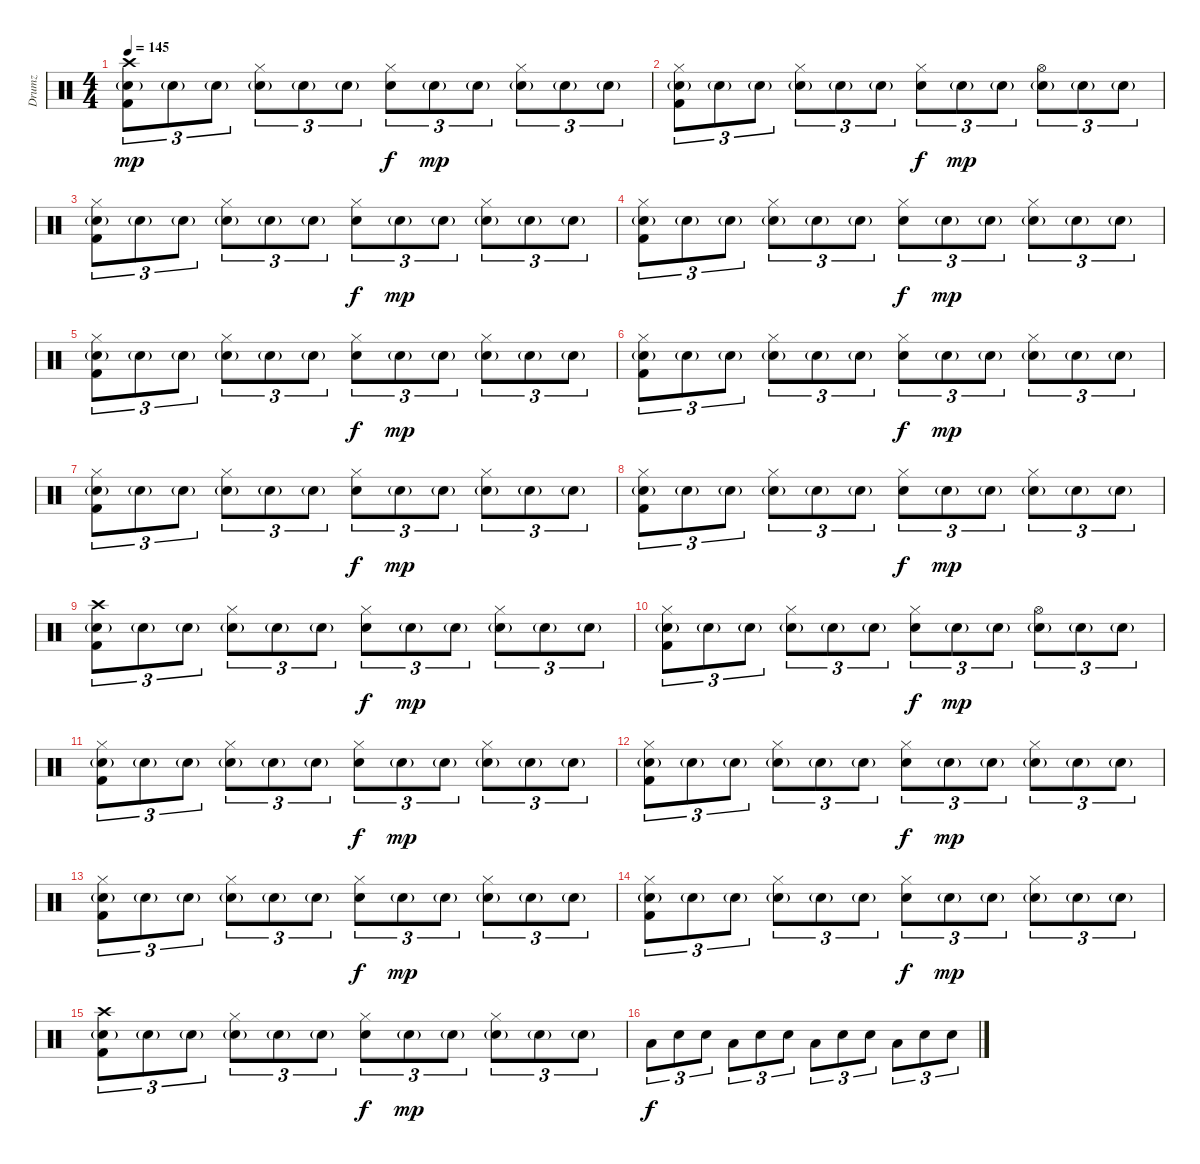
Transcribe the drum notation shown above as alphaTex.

\track ("Drumz" "Drumz") {instrument percussion}
\staff {score}
\articulation defaults
\ts (4 4)
\tempo 145
\clef neutral
\ks c
("Crash high (hit)" "Electric Snare (hit)"{g} "Kick (hit) 2").8{tu (3 2) dy mp} "Electric Snare (hit)"{g}.8{tu (3 2)} "Electric Snare (hit)"{g}.8{tu (3 2)} ("Hi-Hat (closed)" "Electric Snare (hit)"{g}).8{tu (3 2)} "Electric Snare (hit)"{g}.8{tu (3 2)} "Electric Snare (hit)"{g}.8{tu (3 2)} ("Hi-Hat (closed)" "Electric Snare (hit)").8{tu (3 2) dy f} "Electric Snare (hit)"{g}.8{tu (3 2) dy mp} "Electric Snare (hit)"{g}.8{tu (3 2)} ("Hi-Hat (closed)" "Electric Snare (hit)"{g}).8{tu (3 2)} "Electric Snare (hit)"{g}.8{tu (3 2)} "Electric Snare (hit)"{g}.8{tu (3 2)} |
("Hi-Hat (closed)" "Electric Snare (hit)"{g} "Kick (hit) 2").8{tu (3 2)} "Electric Snare (hit)"{g}.8{tu (3 2)} "Electric Snare (hit)"{g}.8{tu (3 2)} ("Hi-Hat (closed)" "Electric Snare (hit)"{g}).8{tu (3 2)} "Electric Snare (hit)"{g}.8{tu (3 2)} "Electric Snare (hit)"{g}.8{tu (3 2)} ("Hi-Hat (closed)" "Electric Snare (hit)").8{tu (3 2) dy f} "Electric Snare (hit)"{g}.8{tu (3 2) dy mp} "Electric Snare (hit)"{g}.8{tu (3 2)} ("Hi-Hat (open)" "Electric Snare (hit)"{g}).8{tu (3 2)} "Electric Snare (hit)"{g}.8{tu (3 2)} "Electric Snare (hit)"{g}.8{tu (3 2)} |
("Hi-Hat (closed)" "Electric Snare (hit)"{g} "Kick (hit) 2").8{tu (3 2)} "Electric Snare (hit)"{g}.8{tu (3 2)} "Electric Snare (hit)"{g}.8{tu (3 2)} ("Hi-Hat (closed)" "Electric Snare (hit)"{g}).8{tu (3 2)} "Electric Snare (hit)"{g}.8{tu (3 2)} "Electric Snare (hit)"{g}.8{tu (3 2)} ("Hi-Hat (closed)" "Electric Snare (hit)").8{tu (3 2) dy f} "Electric Snare (hit)"{g}.8{tu (3 2) dy mp} "Electric Snare (hit)"{g}.8{tu (3 2)} ("Hi-Hat (closed)" "Electric Snare (hit)"{g}).8{tu (3 2)} "Electric Snare (hit)"{g}.8{tu (3 2)} "Electric Snare (hit)"{g}.8{tu (3 2)} |
("Hi-Hat (closed)" "Electric Snare (hit)"{g} "Kick (hit) 2").8{tu (3 2)} "Electric Snare (hit)"{g}.8{tu (3 2)} "Electric Snare (hit)"{g}.8{tu (3 2)} ("Hi-Hat (closed)" "Electric Snare (hit)"{g}).8{tu (3 2)} "Electric Snare (hit)"{g}.8{tu (3 2)} "Electric Snare (hit)"{g}.8{tu (3 2)} ("Hi-Hat (closed)" "Electric Snare (hit)").8{tu (3 2) dy f} "Electric Snare (hit)"{g}.8{tu (3 2) dy mp} "Electric Snare (hit)"{g}.8{tu (3 2)} ("Hi-Hat (closed)" "Electric Snare (hit)"{g}).8{tu (3 2)} "Electric Snare (hit)"{g}.8{tu (3 2)} "Electric Snare (hit)"{g}.8{tu (3 2)} |
("Hi-Hat (closed)" "Electric Snare (hit)"{g} "Kick (hit) 2").8{tu (3 2)} "Electric Snare (hit)"{g}.8{tu (3 2)} "Electric Snare (hit)"{g}.8{tu (3 2)} ("Hi-Hat (closed)" "Electric Snare (hit)"{g}).8{tu (3 2)} "Electric Snare (hit)"{g}.8{tu (3 2)} "Electric Snare (hit)"{g}.8{tu (3 2)} ("Hi-Hat (closed)" "Electric Snare (hit)").8{tu (3 2) dy f} "Electric Snare (hit)"{g}.8{tu (3 2) dy mp} "Electric Snare (hit)"{g}.8{tu (3 2)} ("Hi-Hat (closed)" "Electric Snare (hit)"{g}).8{tu (3 2)} "Electric Snare (hit)"{g}.8{tu (3 2)} "Electric Snare (hit)"{g}.8{tu (3 2)} |
("Hi-Hat (closed)" "Electric Snare (hit)"{g} "Kick (hit) 2").8{tu (3 2)} "Electric Snare (hit)"{g}.8{tu (3 2)} "Electric Snare (hit)"{g}.8{tu (3 2)} ("Hi-Hat (closed)" "Electric Snare (hit)"{g}).8{tu (3 2)} "Electric Snare (hit)"{g}.8{tu (3 2)} "Electric Snare (hit)"{g}.8{tu (3 2)} ("Hi-Hat (closed)" "Electric Snare (hit)").8{tu (3 2) dy f} "Electric Snare (hit)"{g}.8{tu (3 2) dy mp} "Electric Snare (hit)"{g}.8{tu (3 2)} ("Hi-Hat (closed)" "Electric Snare (hit)"{g}).8{tu (3 2)} "Electric Snare (hit)"{g}.8{tu (3 2)} "Electric Snare (hit)"{g}.8{tu (3 2)} |
("Hi-Hat (closed)" "Electric Snare (hit)"{g} "Kick (hit) 2").8{tu (3 2)} "Electric Snare (hit)"{g}.8{tu (3 2)} "Electric Snare (hit)"{g}.8{tu (3 2)} ("Hi-Hat (closed)" "Electric Snare (hit)"{g}).8{tu (3 2)} "Electric Snare (hit)"{g}.8{tu (3 2)} "Electric Snare (hit)"{g}.8{tu (3 2)} ("Hi-Hat (closed)" "Electric Snare (hit)").8{tu (3 2) dy f} "Electric Snare (hit)"{g}.8{tu (3 2) dy mp} "Electric Snare (hit)"{g}.8{tu (3 2)} ("Hi-Hat (closed)" "Electric Snare (hit)"{g}).8{tu (3 2)} "Electric Snare (hit)"{g}.8{tu (3 2)} "Electric Snare (hit)"{g}.8{tu (3 2)} |
("Hi-Hat (closed)" "Electric Snare (hit)"{g} "Kick (hit) 2").8{tu (3 2)} "Electric Snare (hit)"{g}.8{tu (3 2)} "Electric Snare (hit)"{g}.8{tu (3 2)} ("Hi-Hat (closed)" "Electric Snare (hit)"{g}).8{tu (3 2)} "Electric Snare (hit)"{g}.8{tu (3 2)} "Electric Snare (hit)"{g}.8{tu (3 2)} ("Hi-Hat (closed)" "Electric Snare (hit)").8{tu (3 2) dy f} "Electric Snare (hit)"{g}.8{tu (3 2) dy mp} "Electric Snare (hit)"{g}.8{tu (3 2)} ("Hi-Hat (closed)" "Electric Snare (hit)"{g}).8{tu (3 2)} "Electric Snare (hit)"{g}.8{tu (3 2)} "Electric Snare (hit)"{g}.8{tu (3 2)} |
("Crash high (hit)" "Electric Snare (hit)"{g} "Kick (hit) 2").8{tu (3 2)} "Electric Snare (hit)"{g}.8{tu (3 2)} "Electric Snare (hit)"{g}.8{tu (3 2)} ("Hi-Hat (closed)" "Electric Snare (hit)"{g}).8{tu (3 2)} "Electric Snare (hit)"{g}.8{tu (3 2)} "Electric Snare (hit)"{g}.8{tu (3 2)} ("Hi-Hat (closed)" "Electric Snare (hit)").8{tu (3 2) dy f} "Electric Snare (hit)"{g}.8{tu (3 2) dy mp} "Electric Snare (hit)"{g}.8{tu (3 2)} ("Hi-Hat (closed)" "Electric Snare (hit)"{g}).8{tu (3 2)} "Electric Snare (hit)"{g}.8{tu (3 2)} "Electric Snare (hit)"{g}.8{tu (3 2)} |
("Hi-Hat (closed)" "Electric Snare (hit)"{g} "Kick (hit) 2").8{tu (3 2)} "Electric Snare (hit)"{g}.8{tu (3 2)} "Electric Snare (hit)"{g}.8{tu (3 2)} ("Hi-Hat (closed)" "Electric Snare (hit)"{g}).8{tu (3 2)} "Electric Snare (hit)"{g}.8{tu (3 2)} "Electric Snare (hit)"{g}.8{tu (3 2)} ("Hi-Hat (closed)" "Electric Snare (hit)").8{tu (3 2) dy f} "Electric Snare (hit)"{g}.8{tu (3 2) dy mp} "Electric Snare (hit)"{g}.8{tu (3 2)} ("Hi-Hat (open)" "Electric Snare (hit)"{g}).8{tu (3 2)} "Electric Snare (hit)"{g}.8{tu (3 2)} "Electric Snare (hit)"{g}.8{tu (3 2)} |
("Hi-Hat (closed)" "Electric Snare (hit)"{g} "Kick (hit) 2").8{tu (3 2)} "Electric Snare (hit)"{g}.8{tu (3 2)} "Electric Snare (hit)"{g}.8{tu (3 2)} ("Hi-Hat (closed)" "Electric Snare (hit)"{g}).8{tu (3 2)} "Electric Snare (hit)"{g}.8{tu (3 2)} "Electric Snare (hit)"{g}.8{tu (3 2)} ("Hi-Hat (closed)" "Electric Snare (hit)").8{tu (3 2) dy f} "Electric Snare (hit)"{g}.8{tu (3 2) dy mp} "Electric Snare (hit)"{g}.8{tu (3 2)} ("Hi-Hat (closed)" "Electric Snare (hit)"{g}).8{tu (3 2)} "Electric Snare (hit)"{g}.8{tu (3 2)} "Electric Snare (hit)"{g}.8{tu (3 2)} |
("Hi-Hat (closed)" "Electric Snare (hit)"{g} "Kick (hit) 2").8{tu (3 2)} "Electric Snare (hit)"{g}.8{tu (3 2)} "Electric Snare (hit)"{g}.8{tu (3 2)} ("Hi-Hat (closed)" "Electric Snare (hit)"{g}).8{tu (3 2)} "Electric Snare (hit)"{g}.8{tu (3 2)} "Electric Snare (hit)"{g}.8{tu (3 2)} ("Hi-Hat (closed)" "Electric Snare (hit)").8{tu (3 2) dy f} "Electric Snare (hit)"{g}.8{tu (3 2) dy mp} "Electric Snare (hit)"{g}.8{tu (3 2)} ("Hi-Hat (closed)" "Electric Snare (hit)"{g}).8{tu (3 2)} "Electric Snare (hit)"{g}.8{tu (3 2)} "Electric Snare (hit)"{g}.8{tu (3 2)} |
("Hi-Hat (closed)" "Electric Snare (hit)"{g} "Kick (hit) 2").8{tu (3 2)} "Electric Snare (hit)"{g}.8{tu (3 2)} "Electric Snare (hit)"{g}.8{tu (3 2)} ("Hi-Hat (closed)" "Electric Snare (hit)"{g}).8{tu (3 2)} "Electric Snare (hit)"{g}.8{tu (3 2)} "Electric Snare (hit)"{g}.8{tu (3 2)} ("Hi-Hat (closed)" "Electric Snare (hit)").8{tu (3 2) dy f} "Electric Snare (hit)"{g}.8{tu (3 2) dy mp} "Electric Snare (hit)"{g}.8{tu (3 2)} ("Hi-Hat (closed)" "Electric Snare (hit)"{g}).8{tu (3 2)} "Electric Snare (hit)"{g}.8{tu (3 2)} "Electric Snare (hit)"{g}.8{tu (3 2)} |
("Hi-Hat (closed)" "Electric Snare (hit)"{g} "Kick (hit) 2").8{tu (3 2)} "Electric Snare (hit)"{g}.8{tu (3 2)} "Electric Snare (hit)"{g}.8{tu (3 2)} ("Hi-Hat (closed)" "Electric Snare (hit)"{g}).8{tu (3 2)} "Electric Snare (hit)"{g}.8{tu (3 2)} "Electric Snare (hit)"{g}.8{tu (3 2)} ("Hi-Hat (closed)" "Electric Snare (hit)").8{tu (3 2) dy f} "Electric Snare (hit)"{g}.8{tu (3 2) dy mp} "Electric Snare (hit)"{g}.8{tu (3 2)} ("Hi-Hat (closed)" "Electric Snare (hit)"{g}).8{tu (3 2)} "Electric Snare (hit)"{g}.8{tu (3 2)} "Electric Snare (hit)"{g}.8{tu (3 2)} |
("Crash high (hit)" "Electric Snare (hit)"{g} "Kick (hit) 2").8{tu (3 2)} "Electric Snare (hit)"{g}.8{tu (3 2)} "Electric Snare (hit)"{g}.8{tu (3 2)} ("Hi-Hat (closed)" "Electric Snare (hit)"{g}).8{tu (3 2)} "Electric Snare (hit)"{g}.8{tu (3 2)} "Electric Snare (hit)"{g}.8{tu (3 2)} ("Hi-Hat (closed)" "Electric Snare (hit)").8{tu (3 2) dy f} "Electric Snare (hit)"{g}.8{tu (3 2) dy mp} "Electric Snare (hit)"{g}.8{tu (3 2)} ("Hi-Hat (closed)" "Electric Snare (hit)"{g}).8{tu (3 2)} "Electric Snare (hit)"{g}.8{tu (3 2)} "Electric Snare (hit)"{g}.8{tu (3 2)} |
"Low Floor Tom (hit)".8{tu (3 2) dy f} "Electric Snare (hit)".8{tu (3 2)} "Electric Snare (hit)".8{tu (3 2)} "Low Floor Tom (hit)".8{tu (3 2)} "Electric Snare (hit)".8{tu (3 2)} "Electric Snare (hit)".8{tu (3 2)} "Low Floor Tom (hit)".8{tu (3 2)} "Electric Snare (hit)".8{tu (3 2)} "Electric Snare (hit)".8{tu (3 2)} "Low Floor Tom (hit)".8{tu (3 2)} "Electric Snare (hit)".8{tu (3 2)} "Electric Snare (hit)".8{tu (3 2)}
